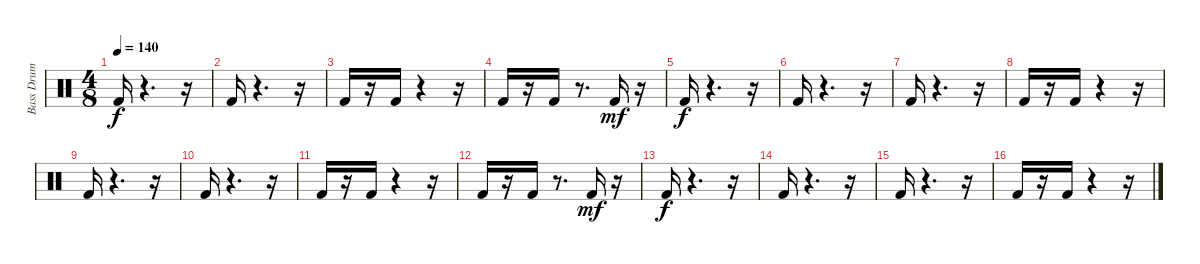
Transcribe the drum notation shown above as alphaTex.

\track ("Bass Drum" "Bass Drum") {instrument percussion}
\staff {score}
\articulation defaults
\ts (4 8)
\tempo 140
\clef neutral
\ks c "Kick (hit) 2".16{dy f}
r.4{d} r.16 |
"Kick (hit) 2".16 r.4{d} r.16 |
"Kick (hit) 2".16 r.16 "Kick (hit) 2".16 r.4 r.16 |
"Kick (hit) 2".16 r.16 "Kick (hit) 2".16 r.8{d} "Kick (hit) 2".16{dy mf} r.16 |
"Kick (hit) 2".16{dy f} r.4{d} r.16 |
"Kick (hit) 2".16 r.4{d} r.16 |
"Kick (hit) 2".16 r.4{d} r.16 |
"Kick (hit) 2".16 r.16 "Kick (hit) 2".16 r.4 r.16 |
"Kick (hit) 2".16 r.4{d} r.16 |
"Kick (hit) 2".16 r.4{d} r.16 |
"Kick (hit) 2".16 r.16 "Kick (hit) 2".16 r.4 r.16 |
"Kick (hit) 2".16 r.16 "Kick (hit) 2".16 r.8{d} "Kick (hit) 2".16{dy mf} r.16 |
"Kick (hit) 2".16{dy f} r.4{d} r.16 |
"Kick (hit) 2".16 r.4{d} r.16 |
"Kick (hit) 2".16 r.4{d} r.16 |
"Kick (hit) 2".16 r.16 "Kick (hit) 2".16 r.4 r.16
